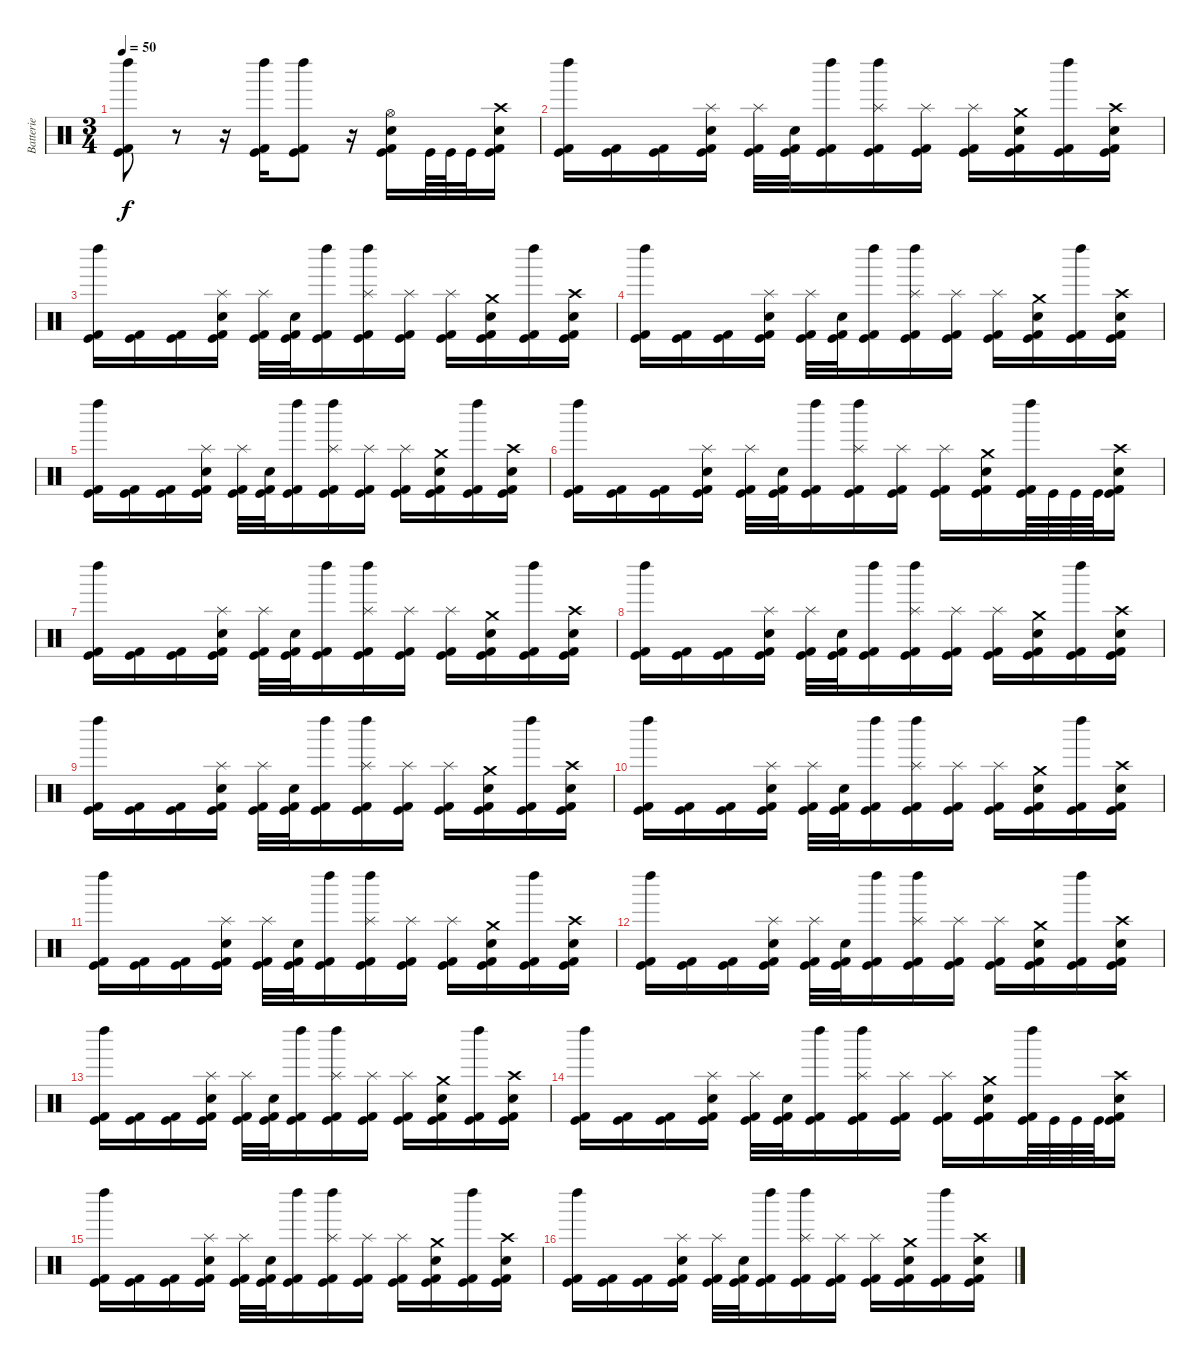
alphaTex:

\track ("Batterie" "Batterie") {instrument percussion}
\staff {score}
\articulation defaults
\ts (3 4)
\tempo 50
\clef neutral
\ks c
("Kick (hit)" "Kick (hit) 2" "Left Maraca (hit)").8{dy f} r.8 r.16 ("Kick (hit)" "Kick (hit) 2" "Left Maraca (hit)").16 ("Kick (hit)" "Kick (hit) 2" "Left Maraca (hit)").8 r.16 ("Kick (hit)" "Kick (hit) 2" "Electric Snare (hit)" "Hi-Hat (open)").16 "Kick (hit)".64 "Kick (hit)".64 "Kick (hit)".32 ("Kick (hit)" "Kick (hit) 2" "Electric Snare (hit)" "Crash high (hit)").16 |
("Kick (hit)" "Kick (hit) 2" "Left Maraca (hit)").16 ("Kick (hit)" "Kick (hit) 2").16 ("Kick (hit)" "Kick (hit) 2").16 ("Kick (hit)" "Kick (hit) 2" "Electric Snare (hit)" "Splash (hit)").16 ("Kick (hit)" "Kick (hit) 2" "Splash (hit)").32 ("Kick (hit)" "Kick (hit) 2" "Electric Snare (hit)").32 ("Kick (hit)" "Kick (hit) 2" "Left Maraca (hit)").16 ("Kick (hit)" "Kick (hit) 2" "Left Maraca (hit)" "Splash (hit)").16 ("Kick (hit)" "Kick (hit) 2" "Splash (hit)").16 ("Kick (hit)" "Kick (hit) 2" "Splash (hit)").16 ("Kick (hit)" "Kick (hit) 2" "Electric Snare (hit)" "Crash medium (hit)").16 ("Kick (hit)" "Kick (hit) 2" "Left Maraca (hit)").16 ("Kick (hit)" "Kick (hit) 2" "Electric Snare (hit)" "Crash high (hit)").16 |
("Kick (hit)" "Kick (hit) 2" "Left Maraca (hit)").16 ("Kick (hit)" "Kick (hit) 2").16 ("Kick (hit)" "Kick (hit) 2").16 ("Kick (hit)" "Kick (hit) 2" "Electric Snare (hit)" "Splash (hit)").16 ("Kick (hit)" "Kick (hit) 2" "Splash (hit)").32 ("Kick (hit)" "Kick (hit) 2" "Electric Snare (hit)").32 ("Kick (hit)" "Kick (hit) 2" "Left Maraca (hit)").16 ("Kick (hit)" "Kick (hit) 2" "Left Maraca (hit)" "Splash (hit)").16 ("Kick (hit)" "Kick (hit) 2" "Splash (hit)").16 ("Kick (hit)" "Kick (hit) 2" "Splash (hit)").16 ("Kick (hit)" "Kick (hit) 2" "Electric Snare (hit)" "Crash medium (hit)").16 ("Kick (hit)" "Kick (hit) 2" "Left Maraca (hit)").16 ("Kick (hit)" "Kick (hit) 2" "Electric Snare (hit)" "Crash high (hit)").16 |
("Kick (hit)" "Kick (hit) 2" "Left Maraca (hit)").16 ("Kick (hit)" "Kick (hit) 2").16 ("Kick (hit)" "Kick (hit) 2").16 ("Kick (hit)" "Kick (hit) 2" "Electric Snare (hit)" "Splash (hit)").16 ("Kick (hit)" "Kick (hit) 2" "Splash (hit)").32 ("Kick (hit)" "Kick (hit) 2" "Electric Snare (hit)").32 ("Kick (hit)" "Kick (hit) 2" "Left Maraca (hit)").16 ("Kick (hit)" "Kick (hit) 2" "Left Maraca (hit)" "Splash (hit)").16 ("Kick (hit)" "Kick (hit) 2" "Splash (hit)").16 ("Kick (hit)" "Kick (hit) 2" "Splash (hit)").16 ("Kick (hit)" "Kick (hit) 2" "Electric Snare (hit)" "Crash medium (hit)").16 ("Kick (hit)" "Kick (hit) 2" "Left Maraca (hit)").16 ("Kick (hit)" "Kick (hit) 2" "Electric Snare (hit)" "Crash high (hit)").16 |
("Kick (hit)" "Kick (hit) 2" "Left Maraca (hit)").16 ("Kick (hit)" "Kick (hit) 2").16 ("Kick (hit)" "Kick (hit) 2").16 ("Kick (hit)" "Kick (hit) 2" "Electric Snare (hit)" "Splash (hit)").16 ("Kick (hit)" "Kick (hit) 2" "Splash (hit)").32 ("Kick (hit)" "Kick (hit) 2" "Electric Snare (hit)").32 ("Kick (hit)" "Kick (hit) 2" "Left Maraca (hit)").16 ("Kick (hit)" "Kick (hit) 2" "Left Maraca (hit)" "Splash (hit)").16 ("Kick (hit)" "Kick (hit) 2" "Splash (hit)").16 ("Kick (hit)" "Kick (hit) 2" "Splash (hit)").16 ("Kick (hit)" "Kick (hit) 2" "Electric Snare (hit)" "Crash medium (hit)").16 ("Kick (hit)" "Kick (hit) 2" "Left Maraca (hit)").16 ("Kick (hit)" "Kick (hit) 2" "Electric Snare (hit)" "Crash high (hit)").16 |
("Kick (hit)" "Kick (hit) 2" "Left Maraca (hit)").16 ("Kick (hit)" "Kick (hit) 2").16 ("Kick (hit)" "Kick (hit) 2").16 ("Kick (hit)" "Kick (hit) 2" "Electric Snare (hit)" "Splash (hit)").16 ("Kick (hit)" "Kick (hit) 2" "Splash (hit)").32 ("Kick (hit)" "Kick (hit) 2" "Electric Snare (hit)").32 ("Kick (hit)" "Kick (hit) 2" "Left Maraca (hit)").16 ("Kick (hit)" "Kick (hit) 2" "Left Maraca (hit)" "Splash (hit)").16 ("Kick (hit)" "Kick (hit) 2" "Splash (hit)").16 ("Kick (hit)" "Kick (hit) 2" "Splash (hit)").16 ("Kick (hit)" "Kick (hit) 2" "Electric Snare (hit)" "Crash medium (hit)").16 ("Kick (hit)" "Kick (hit) 2" "Left Maraca (hit)").64 "Kick (hit)".64 "Kick (hit)".64 "Kick (hit)".64 ("Kick (hit)" "Kick (hit) 2" "Electric Snare (hit)" "Crash high (hit)").16 |
("Kick (hit)" "Kick (hit) 2" "Left Maraca (hit)").16 ("Kick (hit)" "Kick (hit) 2").16 ("Kick (hit)" "Kick (hit) 2").16 ("Kick (hit)" "Kick (hit) 2" "Electric Snare (hit)" "Splash (hit)").16 ("Kick (hit)" "Kick (hit) 2" "Splash (hit)").32 ("Kick (hit)" "Kick (hit) 2" "Electric Snare (hit)").32 ("Kick (hit)" "Kick (hit) 2" "Left Maraca (hit)").16 ("Kick (hit)" "Kick (hit) 2" "Left Maraca (hit)" "Splash (hit)").16 ("Kick (hit)" "Kick (hit) 2" "Splash (hit)").16 ("Kick (hit)" "Kick (hit) 2" "Splash (hit)").16 ("Kick (hit)" "Kick (hit) 2" "Electric Snare (hit)" "Crash medium (hit)").16 ("Kick (hit)" "Kick (hit) 2" "Left Maraca (hit)").16 ("Kick (hit)" "Kick (hit) 2" "Electric Snare (hit)" "Crash high (hit)").16 |
("Kick (hit)" "Kick (hit) 2" "Left Maraca (hit)").16 ("Kick (hit)" "Kick (hit) 2").16 ("Kick (hit)" "Kick (hit) 2").16 ("Kick (hit)" "Kick (hit) 2" "Electric Snare (hit)" "Splash (hit)").16 ("Kick (hit)" "Kick (hit) 2" "Splash (hit)").32 ("Kick (hit)" "Kick (hit) 2" "Electric Snare (hit)").32 ("Kick (hit)" "Kick (hit) 2" "Left Maraca (hit)").16 ("Kick (hit)" "Kick (hit) 2" "Left Maraca (hit)" "Splash (hit)").16 ("Kick (hit)" "Kick (hit) 2" "Splash (hit)").16 ("Kick (hit)" "Kick (hit) 2" "Splash (hit)").16 ("Kick (hit)" "Kick (hit) 2" "Electric Snare (hit)" "Crash medium (hit)").16 ("Kick (hit)" "Kick (hit) 2" "Left Maraca (hit)").16 ("Kick (hit)" "Kick (hit) 2" "Electric Snare (hit)" "Crash high (hit)").16 |
("Kick (hit)" "Kick (hit) 2" "Left Maraca (hit)").16 ("Kick (hit)" "Kick (hit) 2").16 ("Kick (hit)" "Kick (hit) 2").16 ("Kick (hit)" "Kick (hit) 2" "Electric Snare (hit)" "Splash (hit)").16 ("Kick (hit)" "Kick (hit) 2" "Splash (hit)").32 ("Kick (hit)" "Kick (hit) 2" "Electric Snare (hit)").32 ("Kick (hit)" "Kick (hit) 2" "Left Maraca (hit)").16 ("Kick (hit)" "Kick (hit) 2" "Left Maraca (hit)" "Splash (hit)").16 ("Kick (hit)" "Kick (hit) 2" "Splash (hit)").16 ("Kick (hit)" "Kick (hit) 2" "Splash (hit)").16 ("Kick (hit)" "Kick (hit) 2" "Electric Snare (hit)" "Crash medium (hit)").16 ("Kick (hit)" "Kick (hit) 2" "Left Maraca (hit)").16 ("Kick (hit)" "Kick (hit) 2" "Electric Snare (hit)" "Crash high (hit)").16 |
("Kick (hit)" "Kick (hit) 2" "Left Maraca (hit)").16 ("Kick (hit)" "Kick (hit) 2").16 ("Kick (hit)" "Kick (hit) 2").16 ("Kick (hit)" "Kick (hit) 2" "Electric Snare (hit)" "Splash (hit)").16 ("Kick (hit)" "Kick (hit) 2" "Splash (hit)").32 ("Kick (hit)" "Kick (hit) 2" "Electric Snare (hit)").32 ("Kick (hit)" "Kick (hit) 2" "Left Maraca (hit)").16 ("Kick (hit)" "Kick (hit) 2" "Left Maraca (hit)" "Splash (hit)").16 ("Kick (hit)" "Kick (hit) 2" "Splash (hit)").16 ("Kick (hit)" "Kick (hit) 2" "Splash (hit)").16 ("Kick (hit)" "Kick (hit) 2" "Electric Snare (hit)" "Crash medium (hit)").16 ("Kick (hit)" "Kick (hit) 2" "Left Maraca (hit)").16 ("Kick (hit)" "Kick (hit) 2" "Electric Snare (hit)" "Crash high (hit)").16 |
("Kick (hit)" "Kick (hit) 2" "Left Maraca (hit)").16 ("Kick (hit)" "Kick (hit) 2").16 ("Kick (hit)" "Kick (hit) 2").16 ("Kick (hit)" "Kick (hit) 2" "Electric Snare (hit)" "Splash (hit)").16 ("Kick (hit)" "Kick (hit) 2" "Splash (hit)").32 ("Kick (hit)" "Kick (hit) 2" "Electric Snare (hit)").32 ("Kick (hit)" "Kick (hit) 2" "Left Maraca (hit)").16 ("Kick (hit)" "Kick (hit) 2" "Left Maraca (hit)" "Splash (hit)").16 ("Kick (hit)" "Kick (hit) 2" "Splash (hit)").16 ("Kick (hit)" "Kick (hit) 2" "Splash (hit)").16 ("Kick (hit)" "Kick (hit) 2" "Electric Snare (hit)" "Crash medium (hit)").16 ("Kick (hit)" "Kick (hit) 2" "Left Maraca (hit)").16 ("Kick (hit)" "Kick (hit) 2" "Electric Snare (hit)" "Crash high (hit)").16 |
("Kick (hit)" "Kick (hit) 2" "Left Maraca (hit)").16 ("Kick (hit)" "Kick (hit) 2").16 ("Kick (hit)" "Kick (hit) 2").16 ("Kick (hit)" "Kick (hit) 2" "Electric Snare (hit)" "Splash (hit)").16 ("Kick (hit)" "Kick (hit) 2" "Splash (hit)").32 ("Kick (hit)" "Kick (hit) 2" "Electric Snare (hit)").32 ("Kick (hit)" "Kick (hit) 2" "Left Maraca (hit)").16 ("Kick (hit)" "Kick (hit) 2" "Left Maraca (hit)" "Splash (hit)").16 ("Kick (hit)" "Kick (hit) 2" "Splash (hit)").16 ("Kick (hit)" "Kick (hit) 2" "Splash (hit)").16 ("Kick (hit)" "Kick (hit) 2" "Electric Snare (hit)" "Crash medium (hit)").16 ("Kick (hit)" "Kick (hit) 2" "Left Maraca (hit)").16 ("Kick (hit)" "Kick (hit) 2" "Electric Snare (hit)" "Crash high (hit)").16 |
("Kick (hit)" "Kick (hit) 2" "Left Maraca (hit)").16 ("Kick (hit)" "Kick (hit) 2").16 ("Kick (hit)" "Kick (hit) 2").16 ("Kick (hit)" "Kick (hit) 2" "Electric Snare (hit)" "Splash (hit)").16 ("Kick (hit)" "Kick (hit) 2" "Splash (hit)").32 ("Kick (hit)" "Kick (hit) 2" "Electric Snare (hit)").32 ("Kick (hit)" "Kick (hit) 2" "Left Maraca (hit)").16 ("Kick (hit)" "Kick (hit) 2" "Left Maraca (hit)" "Splash (hit)").16 ("Kick (hit)" "Kick (hit) 2" "Splash (hit)").16 ("Kick (hit)" "Kick (hit) 2" "Splash (hit)").16 ("Kick (hit)" "Kick (hit) 2" "Electric Snare (hit)" "Crash medium (hit)").16 ("Kick (hit)" "Kick (hit) 2" "Left Maraca (hit)").16 ("Kick (hit)" "Kick (hit) 2" "Electric Snare (hit)" "Crash high (hit)").16 |
("Kick (hit)" "Kick (hit) 2" "Left Maraca (hit)").16 ("Kick (hit)" "Kick (hit) 2").16 ("Kick (hit)" "Kick (hit) 2").16 ("Kick (hit)" "Kick (hit) 2" "Electric Snare (hit)" "Splash (hit)").16 ("Kick (hit)" "Kick (hit) 2" "Splash (hit)").32 ("Kick (hit)" "Kick (hit) 2" "Electric Snare (hit)").32 ("Kick (hit)" "Kick (hit) 2" "Left Maraca (hit)").16 ("Kick (hit)" "Kick (hit) 2" "Left Maraca (hit)" "Splash (hit)").16 ("Kick (hit)" "Kick (hit) 2" "Splash (hit)").16 ("Kick (hit)" "Kick (hit) 2" "Splash (hit)").16 ("Kick (hit)" "Kick (hit) 2" "Electric Snare (hit)" "Crash medium (hit)").16 ("Kick (hit)" "Kick (hit) 2" "Left Maraca (hit)").64 "Kick (hit)".64 "Kick (hit)".64 "Kick (hit)".64 ("Kick (hit)" "Kick (hit) 2" "Electric Snare (hit)" "Crash high (hit)").16 |
("Kick (hit)" "Kick (hit) 2" "Left Maraca (hit)").16 ("Kick (hit)" "Kick (hit) 2").16 ("Kick (hit)" "Kick (hit) 2").16 ("Kick (hit)" "Kick (hit) 2" "Electric Snare (hit)" "Splash (hit)").16 ("Kick (hit)" "Kick (hit) 2" "Splash (hit)").32 ("Kick (hit)" "Kick (hit) 2" "Electric Snare (hit)").32 ("Kick (hit)" "Kick (hit) 2" "Left Maraca (hit)").16 ("Kick (hit)" "Kick (hit) 2" "Left Maraca (hit)" "Splash (hit)").16 ("Kick (hit)" "Kick (hit) 2" "Splash (hit)").16 ("Kick (hit)" "Kick (hit) 2" "Splash (hit)").16 ("Kick (hit)" "Kick (hit) 2" "Electric Snare (hit)" "Crash medium (hit)").16 ("Kick (hit)" "Kick (hit) 2" "Left Maraca (hit)").16 ("Kick (hit)" "Kick (hit) 2" "Electric Snare (hit)" "Crash high (hit)").16 |
("Kick (hit)" "Kick (hit) 2" "Left Maraca (hit)").16 ("Kick (hit)" "Kick (hit) 2").16 ("Kick (hit)" "Kick (hit) 2").16 ("Kick (hit)" "Kick (hit) 2" "Electric Snare (hit)" "Splash (hit)").16 ("Kick (hit)" "Kick (hit) 2" "Splash (hit)").32 ("Kick (hit)" "Kick (hit) 2" "Electric Snare (hit)").32 ("Kick (hit)" "Kick (hit) 2" "Left Maraca (hit)").16 ("Kick (hit)" "Kick (hit) 2" "Left Maraca (hit)" "Splash (hit)").16 ("Kick (hit)" "Kick (hit) 2" "Splash (hit)").16 ("Kick (hit)" "Kick (hit) 2" "Splash (hit)").16 ("Kick (hit)" "Kick (hit) 2" "Electric Snare (hit)" "Crash medium (hit)").16 ("Kick (hit)" "Kick (hit) 2" "Left Maraca (hit)").16 ("Kick (hit)" "Kick (hit) 2" "Electric Snare (hit)" "Crash high (hit)").16
